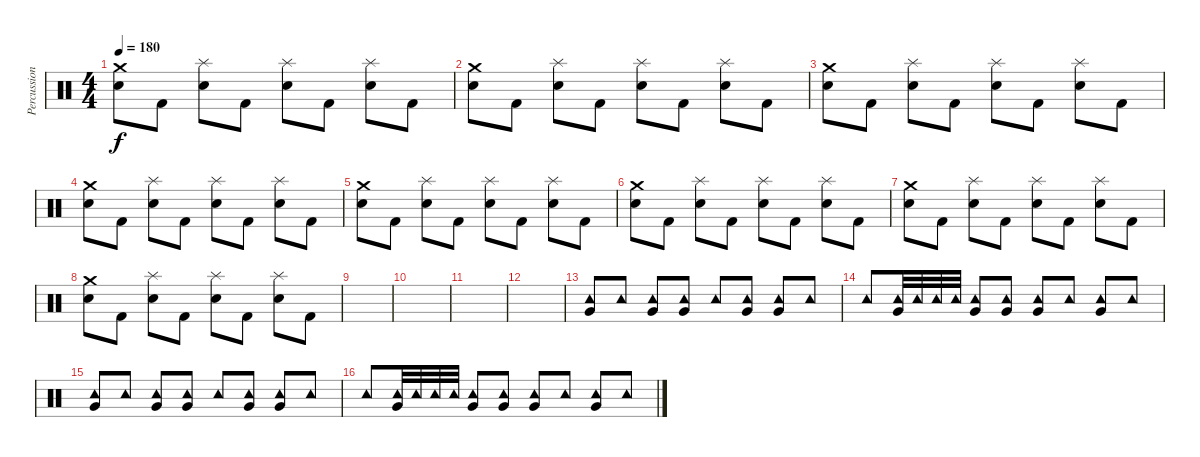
\track ("Percussion" "Percussion") {instrument percussion}
\staff {score}
\articulation defaults
\ts (4 4)
\tempo 180
\clef neutral
\ks c
("Crash medium (hit)" "Snare (hit) 2").8{dy f} "Kick (hit) 2".8 ("Splash (hit)" "Snare (hit) 2").8 "Kick (hit) 2".8 ("Splash (hit)" "Snare (hit) 2").8 "Kick (hit) 2".8 ("Splash (hit)" "Snare (hit) 2").8 "Kick (hit) 2".8 |
("Crash medium (hit)" "Snare (hit) 2").8 "Kick (hit) 2".8 ("Splash (hit)" "Snare (hit) 2").8 "Kick (hit) 2".8 ("Splash (hit)" "Snare (hit) 2").8 "Kick (hit) 2".8 ("Splash (hit)" "Snare (hit) 2").8 "Kick (hit) 2".8 |
("Crash medium (hit)" "Snare (hit) 2").8 "Kick (hit) 2".8 ("Splash (hit)" "Snare (hit) 2").8 "Kick (hit) 2".8 ("Splash (hit)" "Snare (hit) 2").8 "Kick (hit) 2".8 ("Splash (hit)" "Snare (hit) 2").8 "Kick (hit) 2".8 |
("Crash medium (hit)" "Snare (hit) 2").8 "Kick (hit) 2".8 ("Splash (hit)" "Snare (hit) 2").8 "Kick (hit) 2".8 ("Splash (hit)" "Snare (hit) 2").8 "Kick (hit) 2".8 ("Splash (hit)" "Snare (hit) 2").8 "Kick (hit) 2".8 |
("Crash medium (hit)" "Snare (hit) 2").8 "Kick (hit) 2".8 ("Splash (hit)" "Snare (hit) 2").8 "Kick (hit) 2".8 ("Splash (hit)" "Snare (hit) 2").8 "Kick (hit) 2".8 ("Splash (hit)" "Snare (hit) 2").8 "Kick (hit) 2".8 |
("Crash medium (hit)" "Snare (hit) 2").8 "Kick (hit) 2".8 ("Splash (hit)" "Snare (hit) 2").8 "Kick (hit) 2".8 ("Splash (hit)" "Snare (hit) 2").8 "Kick (hit) 2".8 ("Splash (hit)" "Snare (hit) 2").8 "Kick (hit) 2".8 |
("Crash medium (hit)" "Snare (hit) 2").8 "Kick (hit) 2".8 ("Splash (hit)" "Snare (hit) 2").8 "Kick (hit) 2".8 ("Splash (hit)" "Snare (hit) 2").8 "Kick (hit) 2".8 ("Splash (hit)" "Snare (hit) 2").8 "Kick (hit) 2".8 |
("Crash medium (hit)" "Snare (hit) 2").8 "Kick (hit) 2".8 ("Splash (hit)" "Snare (hit) 2").8 "Kick (hit) 2".8 ("Splash (hit)" "Snare (hit) 2").8 "Kick (hit) 2".8 ("Splash (hit)" "Snare (hit) 2").8 "Kick (hit) 2".8 |
|
|
|
|
("Very Low Tom (hit)" "Tambourine (hit)").8 "Tambourine (hit)".8 ("Very Low Tom (hit)" "Tambourine (hit)").8 ("Very Low Tom (hit)" "Tambourine (hit)").8 "Tambourine (hit)".8 ("Very Low Tom (hit)" "Tambourine (hit)").8 ("Very Low Tom (hit)" "Tambourine (hit)").8 "Tambourine (hit)".8 |
"Tambourine (hit)".8 ("Very Low Tom (hit)" "Tambourine (hit)").32 "Tambourine (hit)".32 "Tambourine (hit)".32 "Tambourine (hit)".32 ("Very Low Tom (hit)" "Tambourine (hit)").8 ("Very Low Tom (hit)" "Tambourine (hit)").8 ("Very Low Tom (hit)" "Tambourine (hit)").8 "Tambourine (hit)".8 ("Very Low Tom (hit)" "Tambourine (hit)").8 "Tambourine (hit)".8 |
("Very Low Tom (hit)" "Tambourine (hit)").8 "Tambourine (hit)".8 ("Very Low Tom (hit)" "Tambourine (hit)").8 ("Very Low Tom (hit)" "Tambourine (hit)").8 "Tambourine (hit)".8 ("Very Low Tom (hit)" "Tambourine (hit)").8 ("Very Low Tom (hit)" "Tambourine (hit)").8 "Tambourine (hit)".8 |
"Tambourine (hit)".8 ("Very Low Tom (hit)" "Tambourine (hit)").32 "Tambourine (hit)".32 "Tambourine (hit)".32 "Tambourine (hit)".32 ("Very Low Tom (hit)" "Tambourine (hit)").8 ("Very Low Tom (hit)" "Tambourine (hit)").8 ("Very Low Tom (hit)" "Tambourine (hit)").8 "Tambourine (hit)".8 ("Very Low Tom (hit)" "Tambourine (hit)").8 "Tambourine (hit)".8
